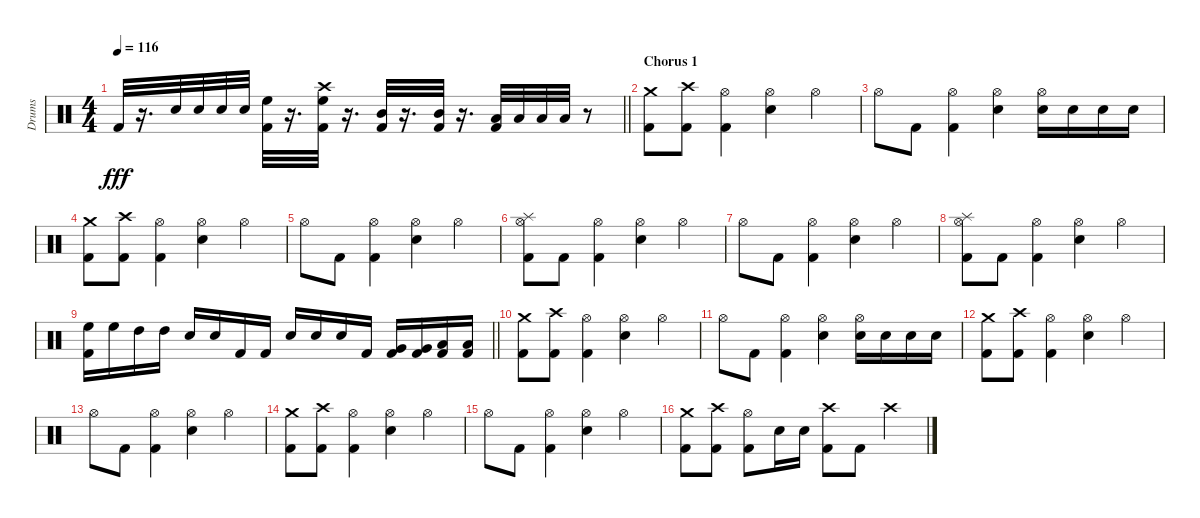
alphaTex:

\track ("Drums" "Drums") {instrument percussion}
\staff {score}
\articulation defaults
\ts (4 4)
\tempo 116
\clef neutral
\barLineRight lightlight
\ks c "Kick (hit) 2".32{dy fff}
r.16{d} "Snare (hit) 2".32 "Snare (hit) 2".32 "Snare (hit) 2".32 "Snare (hit) 2".32 ("Kick (hit) 2" "High Floor Tom (hit)").32 r.16{d} ("Kick (hit) 2" "Crash high (hit)" "High Floor Tom (hit)").32 r.16{d} ("Kick (hit) 2" "Mid Tom (hit)").32 r.16{d} ("Kick (hit) 2" "Mid Tom (hit)").32 r.16{d} ("Low Tom (hit)" "Kick (hit) 2").32 "Low Tom (hit)".32 "Low Tom (hit)".32 "Low Tom (hit)".32 r.8 |
\section ("" "Chorus 1")
("Crash medium (hit)" "Kick (hit) 2").8 ("Crash high (hit)" "Kick (hit) 2").8 ("Kick (hit) 2" "Hi-Hat (open)").4 ("Snare (hit) 2" "Hi-Hat (open)").4 "Hi-Hat (open)".4 |
"Hi-Hat (open)".8 "Kick (hit) 2".8 ("Kick (hit) 2" "Hi-Hat (open)").4 ("Snare (hit) 2" "Hi-Hat (open)").4 ("Snare (hit) 2" "Hi-Hat (open)").16 "Snare (hit) 2".16 "Snare (hit) 2".16 "Snare (hit) 2".16 |
("Crash medium (hit)" "Kick (hit) 2").8 ("Crash high (hit)" "Kick (hit) 2").8 ("Kick (hit) 2" "Hi-Hat (open)").4 ("Snare (hit) 2" "Hi-Hat (open)").4 "Hi-Hat (open)".4 |
"Hi-Hat (open)".8 "Kick (hit) 2".8 ("Kick (hit) 2" "Hi-Hat (open)").4 ("Snare (hit) 2" "Hi-Hat (open)").4 "Hi-Hat (open)".4 |
("Splash (hit)" "Hi-Hat (open)" "Kick (hit) 2").8 "Kick (hit) 2".8 ("Kick (hit) 2" "Hi-Hat (open)").4 ("Snare (hit) 2" "Hi-Hat (open)").4 "Hi-Hat (open)".4 |
"Hi-Hat (open)".8 "Kick (hit) 2".8 ("Kick (hit) 2" "Hi-Hat (open)").4 ("Snare (hit) 2" "Hi-Hat (open)").4 "Hi-Hat (open)".4 |
("Splash (hit)" "Hi-Hat (open)" "Kick (hit) 2").8 "Kick (hit) 2".8 ("Hi-Hat (open)" "Kick (hit) 2").4 ("Snare (hit) 2" "Hi-Hat (open)").4 "Hi-Hat (open)".4 |
\barLineRight lightlight
("High Floor Tom (hit)" "Kick (hit) 2").16 "High Floor Tom (hit)".16 "High Tom (hit)".16 "High Tom (hit)".16 "Snare (hit) 2".16 "Snare (hit) 2".16 "Kick (hit) 2".16 "Kick (hit) 2".16 "Snare (hit) 2".16 "Snare (hit) 2".16 "Snare (hit) 2".16 "Kick (hit) 2".16 ("Kick (hit) 2" "Very Low Tom (hit)").16 ("Kick (hit) 2" "Very Low Tom (hit)").16 ("Low Floor Tom (hit)" "Kick (hit) 2").16 ("Low Floor Tom (hit)" "Kick (hit) 2").16 |
("Crash medium (hit)" "Kick (hit) 2").8 ("Crash high (hit)" "Kick (hit) 2").8 ("Kick (hit) 2" "Hi-Hat (open)").4 ("Snare (hit) 2" "Hi-Hat (open)").4 "Hi-Hat (open)".4 |
"Hi-Hat (open)".8 "Kick (hit) 2".8 ("Kick (hit) 2" "Hi-Hat (open)").4 ("Snare (hit) 2" "Hi-Hat (open)").4 ("Snare (hit) 2" "Hi-Hat (open)").16 "Snare (hit) 2".16 "Snare (hit) 2".16 "Snare (hit) 2".16 |
("Crash medium (hit)" "Kick (hit) 2").8 ("Crash high (hit)" "Kick (hit) 2").8 ("Kick (hit) 2" "Hi-Hat (open)").4 ("Snare (hit) 2" "Hi-Hat (open)").4 "Hi-Hat (open)".4 |
"Hi-Hat (open)".8 "Kick (hit) 2".8 ("Kick (hit) 2" "Hi-Hat (open)").4 ("Snare (hit) 2" "Hi-Hat (open)").4 "Hi-Hat (open)".4 |
("Crash medium (hit)" "Kick (hit) 2").8 ("Crash high (hit)" "Kick (hit) 2").8 ("Kick (hit) 2" "Hi-Hat (open)").4 ("Snare (hit) 2" "Hi-Hat (open)").4 "Hi-Hat (open)".4 |
"Hi-Hat (open)".8 "Kick (hit) 2".8 ("Hi-Hat (open)" "Kick (hit) 2").4 ("Hi-Hat (open)" "Snare (hit) 2").4 "Hi-Hat (open)".4 |
("Kick (hit) 2" "Crash medium (hit)").8 ("Kick (hit) 2" "Crash high (hit)").8 ("Kick (hit) 2" "Hi-Hat (open)").8 "Snare (hit) 2".16 "Snare (hit) 2".16 ("Kick (hit) 2" "Crash high (hit)").8 "Kick (hit) 2".8 "Crash high (hit)".4
